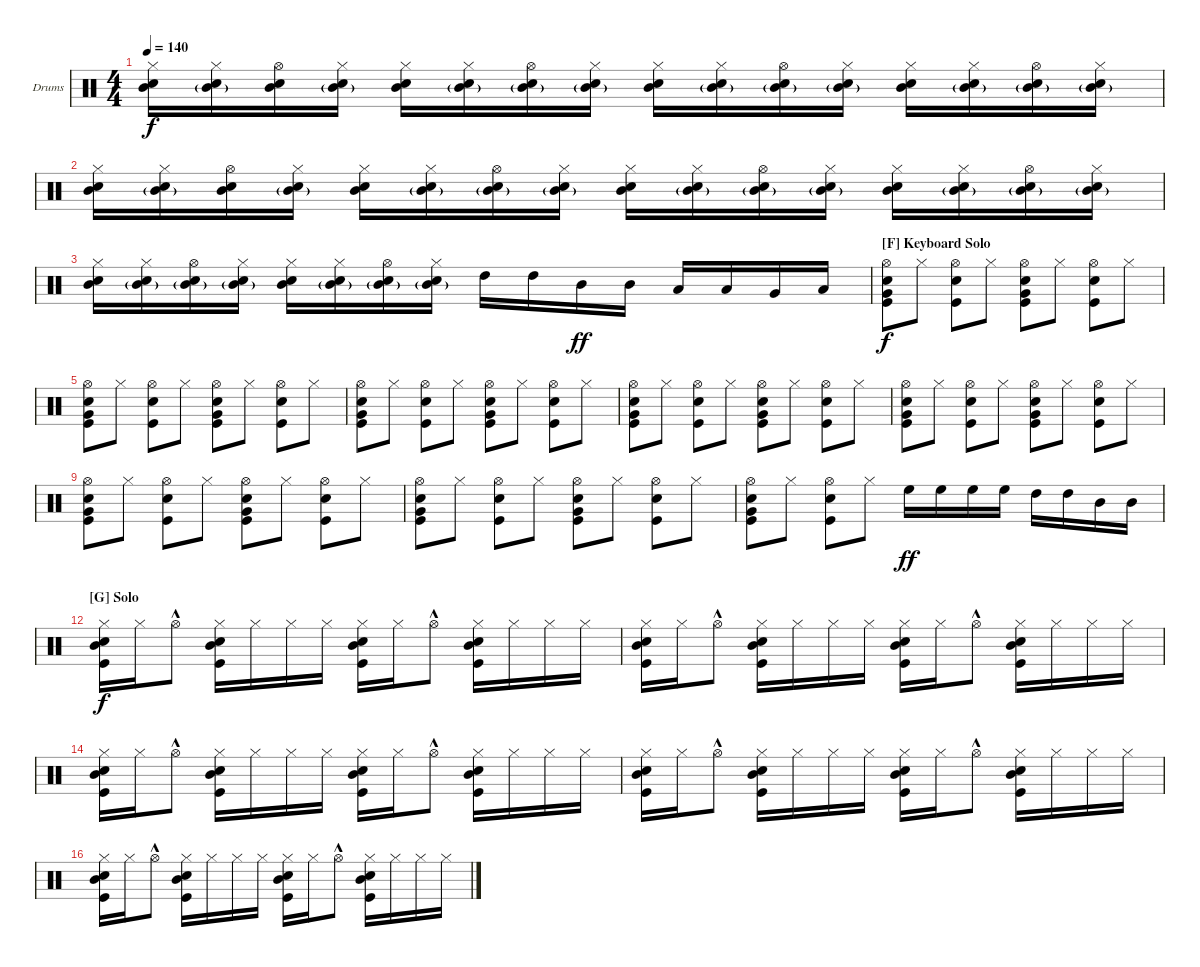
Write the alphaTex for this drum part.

\bracketExtendMode nobrackets
\firstSystemTrackNameOrientation horizontal
\otherSystemsTrackNameOrientation horizontal
\defaultBarNumberDisplay FirstOfSystem
\track ("Drumkit" "Drums") {instrument percussion}
\staff {score}
\articulation defaults
\ts (4 4)
\tempo 140
\clef neutral
\ks c
("Hi-Hat (closed)" "Mid Tom (hit)" "Snare (hit) 2").16{dy f} ("Mid Tom (hit)"{g} "Hi-Hat (closed)" "Snare (hit) 2").16 ("Mid Tom (hit)" "Hi-Hat (open)" "Snare (hit) 2").16 ("Mid Tom (hit)"{g} "Hi-Hat (closed)" "Snare (hit) 2").16 ("Hi-Hat (closed)" "Mid Tom (hit)" "Snare (hit) 2").16 ("Mid Tom (hit)"{g} "Hi-Hat (closed)" "Snare (hit) 2").16 ("Mid Tom (hit)"{g} "Hi-Hat (open)" "Snare (hit) 2").16 ("Hi-Hat (closed)" "Mid Tom (hit)"{g} "Snare (hit) 2").16 ("Hi-Hat (closed)" "Mid Tom (hit)" "Snare (hit) 2").16 ("Mid Tom (hit)"{g} "Hi-Hat (closed)" "Snare (hit) 2").16 ("Mid Tom (hit)"{g} "Hi-Hat (open)" "Snare (hit) 2").16 ("Mid Tom (hit)"{g} "Hi-Hat (closed)" "Snare (hit) 2").16 ("Hi-Hat (closed)" "Mid Tom (hit)" "Snare (hit) 2").16 ("Mid Tom (hit)"{g} "Hi-Hat (closed)" "Snare (hit) 2").16 ("Mid Tom (hit)"{g} "Hi-Hat (open)" "Snare (hit) 2").16 ("Mid Tom (hit)"{g} "Hi-Hat (closed)" "Snare (hit) 2").16 |
("Hi-Hat (closed)" "Mid Tom (hit)" "Snare (hit) 2").16 ("Mid Tom (hit)"{g} "Hi-Hat (closed)" "Snare (hit) 2").16 ("Mid Tom (hit)" "Hi-Hat (open)" "Snare (hit) 2").16 ("Mid Tom (hit)"{g} "Hi-Hat (closed)" "Snare (hit) 2").16 ("Hi-Hat (closed)" "Mid Tom (hit)" "Snare (hit) 2").16 ("Mid Tom (hit)"{g} "Hi-Hat (closed)" "Snare (hit) 2").16 ("Mid Tom (hit)"{g} "Hi-Hat (open)" "Snare (hit) 2").16 ("Hi-Hat (closed)" "Mid Tom (hit)"{g} "Snare (hit) 2").16 ("Hi-Hat (closed)" "Mid Tom (hit)" "Snare (hit) 2").16 ("Mid Tom (hit)"{g} "Hi-Hat (closed)" "Snare (hit) 2").16 ("Mid Tom (hit)"{g} "Hi-Hat (open)" "Snare (hit) 2").16 ("Mid Tom (hit)"{g} "Hi-Hat (closed)" "Snare (hit) 2").16 ("Hi-Hat (closed)" "Mid Tom (hit)" "Snare (hit) 2").16 ("Mid Tom (hit)"{g} "Hi-Hat (closed)" "Snare (hit) 2").16 ("Mid Tom (hit)"{g} "Hi-Hat (open)" "Snare (hit) 2").16 ("Mid Tom (hit)"{g} "Hi-Hat (closed)" "Snare (hit) 2").16 |
("Hi-Hat (closed)" "Mid Tom (hit)" "Snare (hit) 2").16 ("Mid Tom (hit)"{g} "Hi-Hat (closed)" "Snare (hit) 2").16 ("Mid Tom (hit)"{g} "Hi-Hat (open)" "Snare (hit) 2").16 ("Mid Tom (hit)"{g} "Hi-Hat (closed)" "Snare (hit) 2").16 ("Hi-Hat (closed)" "Mid Tom (hit)" "Snare (hit) 2").16 ("Mid Tom (hit)"{g} "Hi-Hat (closed)" "Snare (hit) 2").16 ("Mid Tom (hit)"{g} "Hi-Hat (open)" "Snare (hit) 2").16 ("Mid Tom (hit)"{g} "Hi-Hat (closed)" "Snare (hit) 2").16 "High Tom (hit)".16 "High Tom (hit)".16 "Mid Tom (hit)".16{dy ff} "Mid Tom (hit)".16 "Low Tom (hit)".16 "Low Tom (hit)".16 "Very Low Tom (hit)".16 "Low Tom (hit)".16 |
\section ("F" "Keyboard Solo")
("Kick (hit)" "Hi-Hat (open)" "Very Low Tom (hit)" "Snare (hit) 2").8{dy f} "Hi-Hat (closed)".8 ("Hi-Hat (open)" "Kick (hit)" "Snare (hit) 2").8 "Hi-Hat (closed)".8 ("Kick (hit)" "Hi-Hat (open)" "Very Low Tom (hit)" "Snare (hit) 2").8 "Hi-Hat (closed)".8 ("Hi-Hat (open)" "Kick (hit)" "Snare (hit) 2").8 "Hi-Hat (closed)".8 |
("Kick (hit)" "Hi-Hat (open)" "Very Low Tom (hit)" "Snare (hit) 2").8 "Hi-Hat (closed)".8 ("Hi-Hat (open)" "Kick (hit)" "Snare (hit) 2").8 "Hi-Hat (closed)".8 ("Kick (hit)" "Hi-Hat (open)" "Very Low Tom (hit)" "Snare (hit) 2").8 "Hi-Hat (closed)".8 ("Hi-Hat (open)" "Kick (hit)" "Snare (hit) 2").8 "Hi-Hat (closed)".8 |
("Kick (hit)" "Hi-Hat (open)" "Very Low Tom (hit)" "Snare (hit) 2").8 "Hi-Hat (closed)".8 ("Hi-Hat (open)" "Kick (hit)" "Snare (hit) 2").8 "Hi-Hat (closed)".8 ("Kick (hit)" "Hi-Hat (open)" "Very Low Tom (hit)" "Snare (hit) 2").8 "Hi-Hat (closed)".8 ("Hi-Hat (open)" "Kick (hit)" "Snare (hit) 2").8 "Hi-Hat (closed)".8 |
("Kick (hit)" "Hi-Hat (open)" "Very Low Tom (hit)" "Snare (hit) 2").8 "Hi-Hat (closed)".8 ("Hi-Hat (open)" "Kick (hit)" "Snare (hit) 2").8 "Hi-Hat (closed)".8 ("Kick (hit)" "Hi-Hat (open)" "Very Low Tom (hit)" "Snare (hit) 2").8 "Hi-Hat (closed)".8 ("Hi-Hat (open)" "Kick (hit)" "Snare (hit) 2").8 "Hi-Hat (closed)".8 |
("Kick (hit)" "Hi-Hat (open)" "Very Low Tom (hit)" "Snare (hit) 2").8 "Hi-Hat (closed)".8 ("Hi-Hat (open)" "Kick (hit)" "Snare (hit) 2").8 "Hi-Hat (closed)".8 ("Kick (hit)" "Hi-Hat (open)" "Very Low Tom (hit)" "Snare (hit) 2").8 "Hi-Hat (closed)".8 ("Hi-Hat (open)" "Kick (hit)" "Snare (hit) 2").8 "Hi-Hat (closed)".8 |
("Kick (hit)" "Hi-Hat (open)" "Very Low Tom (hit)" "Snare (hit) 2").8 "Hi-Hat (closed)".8 ("Hi-Hat (open)" "Kick (hit)" "Snare (hit) 2").8 "Hi-Hat (closed)".8 ("Kick (hit)" "Hi-Hat (open)" "Very Low Tom (hit)" "Snare (hit) 2").8 "Hi-Hat (closed)".8 ("Hi-Hat (open)" "Kick (hit)" "Snare (hit) 2").8 "Hi-Hat (closed)".8 |
("Kick (hit)" "Hi-Hat (open)" "Very Low Tom (hit)" "Snare (hit) 2").8 "Hi-Hat (closed)".8 ("Hi-Hat (open)" "Kick (hit)" "Snare (hit) 2").8 "Hi-Hat (closed)".8 ("Kick (hit)" "Hi-Hat (open)" "Very Low Tom (hit)" "Snare (hit) 2").8 "Hi-Hat (closed)".8 ("Hi-Hat (open)" "Kick (hit)" "Snare (hit) 2").8 "Hi-Hat (closed)".8 |
("Kick (hit)" "Hi-Hat (open)" "Very Low Tom (hit)" "Snare (hit) 2").8 "Hi-Hat (closed)".8 ("Hi-Hat (open)" "Kick (hit)" "Snare (hit) 2").8 "Hi-Hat (closed)".8 "High Floor Tom (hit)".16{dy ff} "High Floor Tom (hit)".16 "High Floor Tom (hit)".16 "High Floor Tom (hit)".16 "High Tom (hit)".16 "High Tom (hit)".16 "Mid Tom (hit)".16 "Mid Tom (hit)".16 |
\section ("G" "Solo")
("Hi-Hat (closed)" "Kick (hit)" "Snare (hit) 2" "Mid Tom (hit)").16{dy f} "Hi-Hat (closed)".16 "Hi-Hat (open)"{hac}.8 ("Hi-Hat (closed)" "Kick (hit)" "Snare (hit) 2" "Mid Tom (hit)").16 "Hi-Hat (closed)".16 "Hi-Hat (closed)".16 "Hi-Hat (closed)".16 ("Hi-Hat (closed)" "Kick (hit)" "Snare (hit) 2" "Mid Tom (hit)").16 "Hi-Hat (closed)".16 "Hi-Hat (open)"{hac}.8 ("Hi-Hat (closed)" "Kick (hit)" "Snare (hit) 2" "Mid Tom (hit)").16 "Hi-Hat (closed)".16 "Hi-Hat (closed)".16 "Hi-Hat (closed)".16 |
("Hi-Hat (closed)" "Kick (hit)" "Snare (hit) 2" "Mid Tom (hit)").16 "Hi-Hat (closed)".16 "Hi-Hat (open)"{hac}.8 ("Hi-Hat (closed)" "Kick (hit)" "Snare (hit) 2" "Mid Tom (hit)").16 "Hi-Hat (closed)".16 "Hi-Hat (closed)".16 "Hi-Hat (closed)".16 ("Hi-Hat (closed)" "Kick (hit)" "Snare (hit) 2" "Mid Tom (hit)").16 "Hi-Hat (closed)".16 "Hi-Hat (open)"{hac}.8 ("Hi-Hat (closed)" "Kick (hit)" "Snare (hit) 2" "Mid Tom (hit)").16 "Hi-Hat (closed)".16 "Hi-Hat (closed)".16 "Hi-Hat (closed)".16 |
("Hi-Hat (closed)" "Kick (hit)" "Snare (hit) 2" "Mid Tom (hit)").16 "Hi-Hat (closed)".16 "Hi-Hat (open)"{hac}.8 ("Hi-Hat (closed)" "Kick (hit)" "Snare (hit) 2" "Mid Tom (hit)").16 "Hi-Hat (closed)".16 "Hi-Hat (closed)".16 "Hi-Hat (closed)".16 ("Hi-Hat (closed)" "Kick (hit)" "Snare (hit) 2" "Mid Tom (hit)").16 "Hi-Hat (closed)".16 "Hi-Hat (open)"{hac}.8 ("Hi-Hat (closed)" "Kick (hit)" "Snare (hit) 2" "Mid Tom (hit)").16 "Hi-Hat (closed)".16 "Hi-Hat (closed)".16 "Hi-Hat (closed)".16 |
("Hi-Hat (closed)" "Kick (hit)" "Snare (hit) 2" "Mid Tom (hit)").16 "Hi-Hat (closed)".16 "Hi-Hat (open)"{hac}.8 ("Hi-Hat (closed)" "Kick (hit)" "Snare (hit) 2" "Mid Tom (hit)").16 "Hi-Hat (closed)".16 "Hi-Hat (closed)".16 "Hi-Hat (closed)".16 ("Hi-Hat (closed)" "Kick (hit)" "Snare (hit) 2" "Mid Tom (hit)").16 "Hi-Hat (closed)".16 "Hi-Hat (open)"{hac}.8 ("Hi-Hat (closed)" "Kick (hit)" "Snare (hit) 2" "Mid Tom (hit)").16 "Hi-Hat (closed)".16 "Hi-Hat (closed)".16 "Hi-Hat (closed)".16 |
("Hi-Hat (closed)" "Kick (hit)" "Snare (hit) 2" "Mid Tom (hit)").16 "Hi-Hat (closed)".16 "Hi-Hat (open)"{hac}.8 ("Hi-Hat (closed)" "Kick (hit)" "Snare (hit) 2" "Mid Tom (hit)").16 "Hi-Hat (closed)".16 "Hi-Hat (closed)".16 "Hi-Hat (closed)".16 ("Hi-Hat (closed)" "Kick (hit)" "Snare (hit) 2" "Mid Tom (hit)").16 "Hi-Hat (closed)".16 "Hi-Hat (open)"{hac}.8 ("Hi-Hat (closed)" "Kick (hit)" "Snare (hit) 2" "Mid Tom (hit)").16 "Hi-Hat (closed)".16 "Hi-Hat (closed)".16 "Hi-Hat (closed)".16
